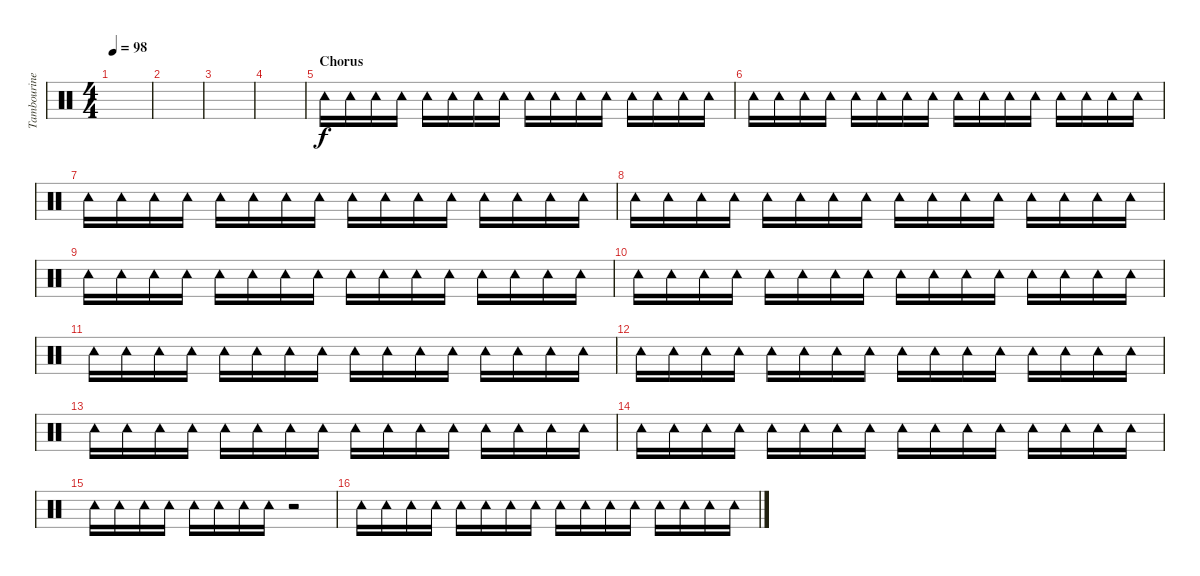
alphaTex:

\track ("Tambourine" "Tambourine") {instrument percussion}
\staff {score}
\articulation defaults
\ts (4 4)
\tempo 98
\clef neutral
\ks c
|
|
|
|
\section ("" "Chorus")
"Tambourine (hit)".16 "Tambourine (hit)".16 "Tambourine (hit)".16 "Tambourine (hit)".16 "Tambourine (hit)".16 "Tambourine (hit)".16 "Tambourine (hit)".16 "Tambourine (hit)".16 "Tambourine (hit)".16 "Tambourine (hit)".16 "Tambourine (hit)".16 "Tambourine (hit)".16 "Tambourine (hit)".16 "Tambourine (hit)".16 "Tambourine (hit)".16 "Tambourine (hit)".16 |
"Tambourine (hit)".16 "Tambourine (hit)".16 "Tambourine (hit)".16 "Tambourine (hit)".16 "Tambourine (hit)".16 "Tambourine (hit)".16 "Tambourine (hit)".16 "Tambourine (hit)".16 "Tambourine (hit)".16 "Tambourine (hit)".16 "Tambourine (hit)".16 "Tambourine (hit)".16 "Tambourine (hit)".16 "Tambourine (hit)".16 "Tambourine (hit)".16 "Tambourine (hit)".16 |
"Tambourine (hit)".16 "Tambourine (hit)".16 "Tambourine (hit)".16 "Tambourine (hit)".16 "Tambourine (hit)".16 "Tambourine (hit)".16 "Tambourine (hit)".16 "Tambourine (hit)".16 "Tambourine (hit)".16 "Tambourine (hit)".16 "Tambourine (hit)".16 "Tambourine (hit)".16 "Tambourine (hit)".16 "Tambourine (hit)".16 "Tambourine (hit)".16 "Tambourine (hit)".16 |
"Tambourine (hit)".16 "Tambourine (hit)".16 "Tambourine (hit)".16 "Tambourine (hit)".16 "Tambourine (hit)".16 "Tambourine (hit)".16 "Tambourine (hit)".16 "Tambourine (hit)".16 "Tambourine (hit)".16 "Tambourine (hit)".16 "Tambourine (hit)".16 "Tambourine (hit)".16 "Tambourine (hit)".16 "Tambourine (hit)".16 "Tambourine (hit)".16 "Tambourine (hit)".16 |
"Tambourine (hit)".16 "Tambourine (hit)".16 "Tambourine (hit)".16 "Tambourine (hit)".16 "Tambourine (hit)".16 "Tambourine (hit)".16 "Tambourine (hit)".16 "Tambourine (hit)".16 "Tambourine (hit)".16 "Tambourine (hit)".16 "Tambourine (hit)".16 "Tambourine (hit)".16 "Tambourine (hit)".16 "Tambourine (hit)".16 "Tambourine (hit)".16 "Tambourine (hit)".16 |
"Tambourine (hit)".16 "Tambourine (hit)".16 "Tambourine (hit)".16 "Tambourine (hit)".16 "Tambourine (hit)".16 "Tambourine (hit)".16 "Tambourine (hit)".16 "Tambourine (hit)".16 "Tambourine (hit)".16 "Tambourine (hit)".16 "Tambourine (hit)".16 "Tambourine (hit)".16 "Tambourine (hit)".16 "Tambourine (hit)".16 "Tambourine (hit)".16 "Tambourine (hit)".16 |
"Tambourine (hit)".16 "Tambourine (hit)".16 "Tambourine (hit)".16 "Tambourine (hit)".16 "Tambourine (hit)".16 "Tambourine (hit)".16 "Tambourine (hit)".16 "Tambourine (hit)".16 "Tambourine (hit)".16 "Tambourine (hit)".16 "Tambourine (hit)".16 "Tambourine (hit)".16 "Tambourine (hit)".16 "Tambourine (hit)".16 "Tambourine (hit)".16 "Tambourine (hit)".16 |
"Tambourine (hit)".16 "Tambourine (hit)".16 "Tambourine (hit)".16 "Tambourine (hit)".16 "Tambourine (hit)".16 "Tambourine (hit)".16 "Tambourine (hit)".16 "Tambourine (hit)".16 "Tambourine (hit)".16 "Tambourine (hit)".16 "Tambourine (hit)".16 "Tambourine (hit)".16 "Tambourine (hit)".16 "Tambourine (hit)".16 "Tambourine (hit)".16 "Tambourine (hit)".16 |
"Tambourine (hit)".16 "Tambourine (hit)".16 "Tambourine (hit)".16 "Tambourine (hit)".16 "Tambourine (hit)".16 "Tambourine (hit)".16 "Tambourine (hit)".16 "Tambourine (hit)".16 "Tambourine (hit)".16 "Tambourine (hit)".16 "Tambourine (hit)".16 "Tambourine (hit)".16 "Tambourine (hit)".16 "Tambourine (hit)".16 "Tambourine (hit)".16 "Tambourine (hit)".16 |
"Tambourine (hit)".16 "Tambourine (hit)".16 "Tambourine (hit)".16 "Tambourine (hit)".16 "Tambourine (hit)".16 "Tambourine (hit)".16 "Tambourine (hit)".16 "Tambourine (hit)".16 "Tambourine (hit)".16 "Tambourine (hit)".16 "Tambourine (hit)".16 "Tambourine (hit)".16 "Tambourine (hit)".16 "Tambourine (hit)".16 "Tambourine (hit)".16 "Tambourine (hit)".16 |
"Tambourine (hit)".16 "Tambourine (hit)".16 "Tambourine (hit)".16 "Tambourine (hit)".16 "Tambourine (hit)".16 "Tambourine (hit)".16 "Tambourine (hit)".16 "Tambourine (hit)".16 r.2 |
"Tambourine (hit)".16 "Tambourine (hit)".16 "Tambourine (hit)".16 "Tambourine (hit)".16 "Tambourine (hit)".16 "Tambourine (hit)".16 "Tambourine (hit)".16 "Tambourine (hit)".16 "Tambourine (hit)".16 "Tambourine (hit)".16 "Tambourine (hit)".16 "Tambourine (hit)".16 "Tambourine (hit)".16 "Tambourine (hit)".16 "Tambourine (hit)".16 "Tambourine (hit)".16
